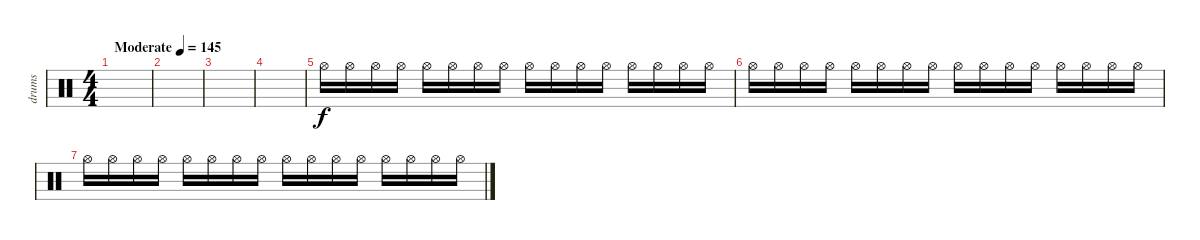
\track ("drums" "drums") {instrument percussion}
\staff {score}
\articulation defaults
\ts (4 4)
\tempo (145 "Moderate")
\clef neutral
\ks c
|
|
|
|
"Hi-Hat (open)".16{volume 10} "Hi-Hat (open)".16 "Hi-Hat (open)".16 "Hi-Hat (open)".16 "Hi-Hat (open)".16 "Hi-Hat (open)".16 "Hi-Hat (open)".16 "Hi-Hat (open)".16 "Hi-Hat (open)".16 "Hi-Hat (open)".16 "Hi-Hat (open)".16 "Hi-Hat (open)".16 "Hi-Hat (open)".16 "Hi-Hat (open)".16 "Hi-Hat (open)".16 "Hi-Hat (open)".16 |
"Hi-Hat (open)".16{volume 7} "Hi-Hat (open)".16 "Hi-Hat (open)".16 "Hi-Hat (open)".16 "Hi-Hat (open)".16 "Hi-Hat (open)".16 "Hi-Hat (open)".16 "Hi-Hat (open)".16 "Hi-Hat (open)".16 "Hi-Hat (open)".16 "Hi-Hat (open)".16 "Hi-Hat (open)".16 "Hi-Hat (open)".16 "Hi-Hat (open)".16 "Hi-Hat (open)".16 "Hi-Hat (open)".16 |
"Hi-Hat (open)".16{volume 4} "Hi-Hat (open)".16 "Hi-Hat (open)".16 "Hi-Hat (open)".16 "Hi-Hat (open)".16 "Hi-Hat (open)".16 "Hi-Hat (open)".16 "Hi-Hat (open)".16 "Hi-Hat (open)".16 "Hi-Hat (open)".16 "Hi-Hat (open)".16 "Hi-Hat (open)".16 "Hi-Hat (open)".16 "Hi-Hat (open)".16 "Hi-Hat (open)".16 "Hi-Hat (open)".16
